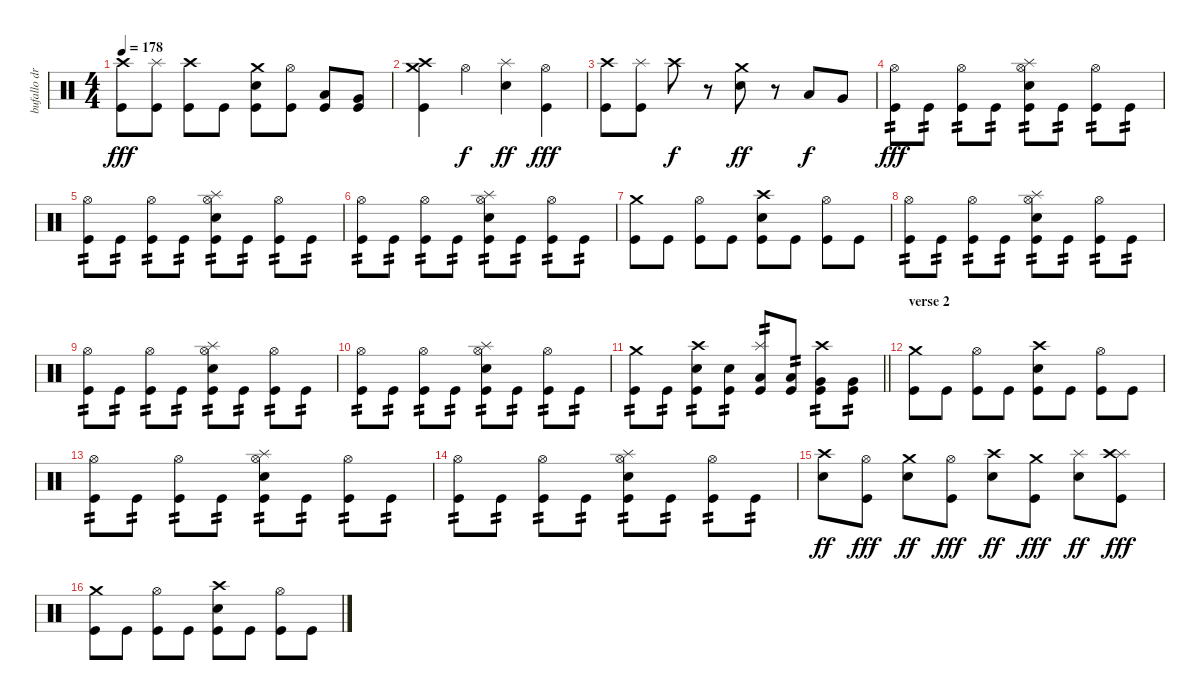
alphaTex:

\track ("bufallo drums" "bufallo dr") {instrument percussion}
\staff {score}
\articulation defaults
\ts (4 4)
\tempo 178
\clef neutral
\ks c
("Crash high (hit)" "Kick (hit)").8{dy fff} ("Splash (hit)" "Kick (hit)").8 ("Crash high (hit)" "Kick (hit)").8 "Kick (hit)".8 ("Crash medium (hit)" "Electric Snare (hit)" "Kick (hit)").8 ("Hi-Hat (open)" "Kick (hit)").8 ("Low Tom (hit)" "Kick (hit)").8 ("Very Low Tom (hit)" "Kick (hit)").8 |
("Crash medium (hit)" "Crash high (hit)" "Kick (hit)").4 "Hi-Hat (open)".4{dy f} ("Splash (hit)" "Electric Snare (hit)").4{dy ff} ("Hi-Hat (open)" "Kick (hit)").4{dy fff} |
("Crash high (hit)" "Kick (hit)").8 ("Splash (hit)" "Kick (hit)").8 "Crash high (hit)".8{dy f} r.8 ("Crash medium (hit)" "Electric Snare (hit)").8{dy ff} r.8 "Low Tom (hit)".8{dy f} "Very Low Tom (hit)".8 |
("Hi-Hat (open)" "Kick (hit)").8{tp 2 dy fff} "Kick (hit)".8{tp 2} ("Hi-Hat (open)" "Kick (hit)").8{tp 2} "Kick (hit)".8{tp 2} ("Hi-Hat (open)" "Splash (hit)" "Electric Snare (hit)" "Kick (hit)").8{tp 2} "Kick (hit)".8{tp 2} ("Hi-Hat (open)" "Kick (hit)").8{tp 2} "Kick (hit)".8{tp 2} |
("Hi-Hat (open)" "Kick (hit)").8{tp 2} "Kick (hit)".8{tp 2} ("Hi-Hat (open)" "Kick (hit)").8{tp 2} "Kick (hit)".8{tp 2} ("Hi-Hat (open)" "Splash (hit)" "Electric Snare (hit)" "Kick (hit)").8{tp 2} "Kick (hit)".8{tp 2} ("Hi-Hat (open)" "Kick (hit)").8{tp 2} "Kick (hit)".8{tp 2} |
("Hi-Hat (open)" "Kick (hit)").8{tp 2} "Kick (hit)".8{tp 2} ("Hi-Hat (open)" "Kick (hit)").8{tp 2} "Kick (hit)".8{tp 2} ("Hi-Hat (open)" "Splash (hit)" "Electric Snare (hit)" "Kick (hit)").8{tp 2} "Kick (hit)".8{tp 2} ("Hi-Hat (open)" "Kick (hit)").8{tp 2} "Kick (hit)".8{tp 2} |
("Crash medium (hit)" "Kick (hit)").8 "Kick (hit)".8 ("Hi-Hat (open)" "Kick (hit)").8 "Kick (hit)".8 ("Electric Snare (hit)" "Crash high (hit)" "Kick (hit)").8 "Kick (hit)".8 ("Hi-Hat (open)" "Kick (hit)").8 "Kick (hit)".8 |
("Hi-Hat (open)" "Kick (hit)").8{tp 2} "Kick (hit)".8{tp 2} ("Hi-Hat (open)" "Kick (hit)").8{tp 2} "Kick (hit)".8{tp 2} ("Hi-Hat (open)" "Splash (hit)" "Electric Snare (hit)" "Kick (hit)").8{tp 2} "Kick (hit)".8{tp 2} ("Hi-Hat (open)" "Kick (hit)").8{tp 2} "Kick (hit)".8{tp 2} |
("Hi-Hat (open)" "Kick (hit)").8{tp 2} "Kick (hit)".8{tp 2} ("Hi-Hat (open)" "Kick (hit)").8{tp 2} "Kick (hit)".8{tp 2} ("Hi-Hat (open)" "Splash (hit)" "Electric Snare (hit)" "Kick (hit)").8{tp 2} "Kick (hit)".8{tp 2} ("Hi-Hat (open)" "Kick (hit)").8{tp 2} "Kick (hit)".8{tp 2} |
("Hi-Hat (open)" "Kick (hit)").8{tp 2} "Kick (hit)".8{tp 2} ("Hi-Hat (open)" "Kick (hit)").8{tp 2} "Kick (hit)".8{tp 2} ("Hi-Hat (open)" "Splash (hit)" "Electric Snare (hit)" "Kick (hit)").8{tp 2} "Kick (hit)".8{tp 2} ("Hi-Hat (open)" "Kick (hit)").8{tp 2} "Kick (hit)".8{tp 2} |
\barLineRight lightlight
("Crash medium (hit)" "Kick (hit)").8{tp 2} "Kick (hit)".8{tp 2} ("Crash high (hit)" "Electric Snare (hit)" "Kick (hit)").8{tp 2} ("Electric Snare (hit)" "Kick (hit)").8{tp 2} ("Splash (hit)" "Low Tom (hit)" "Kick (hit)").8{tp 2} ("Low Tom (hit)" "Kick (hit)").8{tp 2} ("Crash high (hit)" "Very Low Tom (hit)" "Kick (hit)").8{tp 2} ("Very Low Tom (hit)" "Kick (hit)").8{tp 2} |
\section ("" "verse 2")
("Crash medium (hit)" "Kick (hit)").8 "Kick (hit)".8 ("Hi-Hat (open)" "Kick (hit)").8 "Kick (hit)".8 ("Electric Snare (hit)" "Crash high (hit)" "Kick (hit)").8 "Kick (hit)".8 ("Hi-Hat (open)" "Kick (hit)").8 "Kick (hit)".8 |
("Hi-Hat (open)" "Kick (hit)").8{tp 2} "Kick (hit)".8{tp 2} ("Hi-Hat (open)" "Kick (hit)").8{tp 2} "Kick (hit)".8{tp 2} ("Hi-Hat (open)" "Splash (hit)" "Electric Snare (hit)" "Kick (hit)").8{tp 2} "Kick (hit)".8{tp 2} ("Hi-Hat (open)" "Kick (hit)").8{tp 2} "Kick (hit)".8{tp 2} |
("Hi-Hat (open)" "Kick (hit)").8{tp 2} "Kick (hit)".8{tp 2} ("Hi-Hat (open)" "Kick (hit)").8{tp 2} "Kick (hit)".8{tp 2} ("Hi-Hat (open)" "Splash (hit)" "Electric Snare (hit)" "Kick (hit)").8{tp 2} "Kick (hit)".8{tp 2} ("Hi-Hat (open)" "Kick (hit)").8{tp 2} "Kick (hit)".8{tp 2} |
("Crash high (hit)" "Electric Snare (hit)").8{dy ff} ("Hi-Hat (open)" "Kick (hit)").8{dy fff} ("Crash medium (hit)" "Electric Snare (hit)").8{dy ff} ("Hi-Hat (open)" "Kick (hit)").8{dy fff} ("Crash high (hit)" "Electric Snare (hit)").8{dy ff} ("Crash medium (hit)" "Kick (hit)").8{dy fff} ("Splash (hit)" "Electric Snare (hit)").8{dy ff} ("Splash (hit)" "Crash high (hit)" "Kick (hit)").8{dy fff} |
("Crash medium (hit)" "Kick (hit)").8 "Kick (hit)".8 ("Hi-Hat (open)" "Kick (hit)").8 "Kick (hit)".8 ("Electric Snare (hit)" "Crash high (hit)" "Kick (hit)").8 "Kick (hit)".8 ("Hi-Hat (open)" "Kick (hit)").8 "Kick (hit)".8
